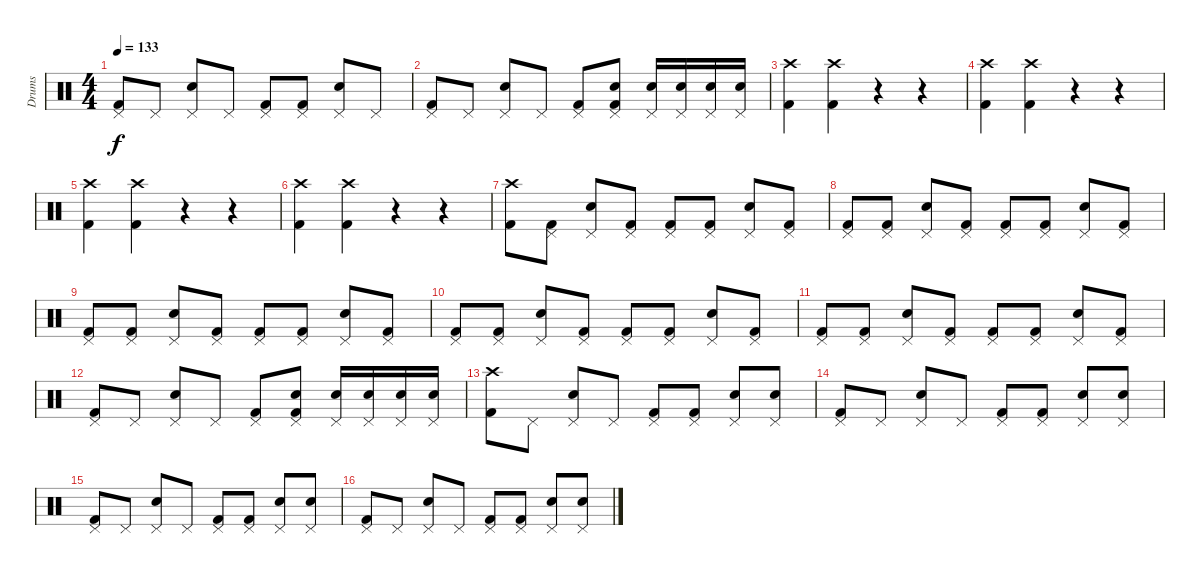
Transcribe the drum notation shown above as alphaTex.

\track ("Drums" "Drums") {instrument percussion}
\staff {score}
\articulation defaults
\ts (4 4)
\tempo 133
\clef neutral
\ks c
("Pedal Hi-Hat (hit)" "Kick (hit) 2").8{dy f} "Pedal Hi-Hat (hit)".8 ("Pedal Hi-Hat (hit)" "Snare (hit) 2").8 "Pedal Hi-Hat (hit)".8 ("Pedal Hi-Hat (hit)" "Kick (hit) 2").8 ("Pedal Hi-Hat (hit)" "Kick (hit) 2").8 ("Pedal Hi-Hat (hit)" "Snare (hit) 2").8 "Pedal Hi-Hat (hit)".8 |
("Pedal Hi-Hat (hit)" "Kick (hit) 2").8 "Pedal Hi-Hat (hit)".8 ("Pedal Hi-Hat (hit)" "Snare (hit) 2").8 "Pedal Hi-Hat (hit)".8 ("Pedal Hi-Hat (hit)" "Kick (hit) 2").8 ("Pedal Hi-Hat (hit)" "Snare (hit) 2" "Kick (hit) 2").8 ("Pedal Hi-Hat (hit)" "Snare (hit) 2").16 ("Pedal Hi-Hat (hit)" "Snare (hit) 2").16 ("Pedal Hi-Hat (hit)" "Snare (hit) 2").16 ("Pedal Hi-Hat (hit)" "Snare (hit) 2").16 |
("Crash high (hit)" "Kick (hit) 2").4 ("Crash high (hit)" "Kick (hit) 2").4 r.4 r.4 |
("Crash high (hit)" "Kick (hit) 2").4 ("Crash high (hit)" "Kick (hit) 2").4 r.4 r.4 |
("Crash high (hit)" "Kick (hit) 2").4 ("Crash high (hit)" "Kick (hit) 2").4 r.4 r.4 |
("Crash high (hit)" "Kick (hit) 2").4 ("Crash high (hit)" "Kick (hit) 2").4 r.4 r.4 |
("Crash high (hit)" "Kick (hit) 2").8 ("Pedal Hi-Hat (hit)" "Kick (hit) 2").8 ("Pedal Hi-Hat (hit)" "Snare (hit) 2").8 ("Pedal Hi-Hat (hit)" "Kick (hit) 2").8 ("Pedal Hi-Hat (hit)" "Kick (hit) 2").8 ("Pedal Hi-Hat (hit)" "Kick (hit) 2").8 ("Pedal Hi-Hat (hit)" "Snare (hit) 2").8 ("Pedal Hi-Hat (hit)" "Kick (hit) 2").8 |
("Pedal Hi-Hat (hit)" "Kick (hit) 2").8 ("Pedal Hi-Hat (hit)" "Kick (hit) 2").8 ("Pedal Hi-Hat (hit)" "Snare (hit) 2").8 ("Pedal Hi-Hat (hit)" "Kick (hit) 2").8 ("Pedal Hi-Hat (hit)" "Kick (hit) 2").8 ("Pedal Hi-Hat (hit)" "Kick (hit) 2").8 ("Pedal Hi-Hat (hit)" "Snare (hit) 2").8 ("Pedal Hi-Hat (hit)" "Kick (hit) 2").8 |
("Pedal Hi-Hat (hit)" "Kick (hit) 2").8 ("Pedal Hi-Hat (hit)" "Kick (hit) 2").8 ("Pedal Hi-Hat (hit)" "Snare (hit) 2").8 ("Pedal Hi-Hat (hit)" "Kick (hit) 2").8 ("Pedal Hi-Hat (hit)" "Kick (hit) 2").8 ("Pedal Hi-Hat (hit)" "Kick (hit) 2").8 ("Pedal Hi-Hat (hit)" "Snare (hit) 2").8 ("Pedal Hi-Hat (hit)" "Kick (hit) 2").8 |
("Pedal Hi-Hat (hit)" "Kick (hit) 2").8 ("Pedal Hi-Hat (hit)" "Kick (hit) 2").8 ("Pedal Hi-Hat (hit)" "Snare (hit) 2").8 ("Pedal Hi-Hat (hit)" "Kick (hit) 2").8 ("Pedal Hi-Hat (hit)" "Kick (hit) 2").8 ("Pedal Hi-Hat (hit)" "Kick (hit) 2").8 ("Pedal Hi-Hat (hit)" "Snare (hit) 2").8 ("Pedal Hi-Hat (hit)" "Kick (hit) 2").8 |
("Pedal Hi-Hat (hit)" "Kick (hit) 2").8 ("Pedal Hi-Hat (hit)" "Kick (hit) 2").8 ("Pedal Hi-Hat (hit)" "Snare (hit) 2").8 ("Pedal Hi-Hat (hit)" "Kick (hit) 2").8 ("Pedal Hi-Hat (hit)" "Kick (hit) 2").8 ("Pedal Hi-Hat (hit)" "Kick (hit) 2").8 ("Pedal Hi-Hat (hit)" "Snare (hit) 2").8 ("Pedal Hi-Hat (hit)" "Kick (hit) 2").8 |
("Pedal Hi-Hat (hit)" "Kick (hit) 2").8 "Pedal Hi-Hat (hit)".8 ("Pedal Hi-Hat (hit)" "Snare (hit) 2").8 "Pedal Hi-Hat (hit)".8 ("Pedal Hi-Hat (hit)" "Kick (hit) 2").8 ("Pedal Hi-Hat (hit)" "Snare (hit) 2" "Kick (hit) 2").8 ("Pedal Hi-Hat (hit)" "Snare (hit) 2").16 ("Pedal Hi-Hat (hit)" "Snare (hit) 2").16 ("Pedal Hi-Hat (hit)" "Snare (hit) 2").16 ("Pedal Hi-Hat (hit)" "Snare (hit) 2").16 |
("Crash high (hit)" "Kick (hit) 2").8 "Pedal Hi-Hat (hit)".8 ("Pedal Hi-Hat (hit)" "Snare (hit) 2").8 "Pedal Hi-Hat (hit)".8 ("Pedal Hi-Hat (hit)" "Kick (hit) 2").8 ("Pedal Hi-Hat (hit)" "Kick (hit) 2").8 ("Pedal Hi-Hat (hit)" "Snare (hit) 2").8 ("Pedal Hi-Hat (hit)" "Snare (hit) 2").8 |
("Pedal Hi-Hat (hit)" "Kick (hit) 2").8 "Pedal Hi-Hat (hit)".8 ("Pedal Hi-Hat (hit)" "Snare (hit) 2").8 "Pedal Hi-Hat (hit)".8 ("Pedal Hi-Hat (hit)" "Kick (hit) 2").8 ("Pedal Hi-Hat (hit)" "Kick (hit) 2").8 ("Pedal Hi-Hat (hit)" "Snare (hit) 2").8 ("Pedal Hi-Hat (hit)" "Snare (hit) 2").8 |
("Pedal Hi-Hat (hit)" "Kick (hit) 2").8 "Pedal Hi-Hat (hit)".8 ("Pedal Hi-Hat (hit)" "Snare (hit) 2").8 "Pedal Hi-Hat (hit)".8 ("Pedal Hi-Hat (hit)" "Kick (hit) 2").8 ("Pedal Hi-Hat (hit)" "Kick (hit) 2").8 ("Pedal Hi-Hat (hit)" "Snare (hit) 2").8 ("Pedal Hi-Hat (hit)" "Snare (hit) 2").8 |
("Pedal Hi-Hat (hit)" "Kick (hit) 2").8 "Pedal Hi-Hat (hit)".8 ("Pedal Hi-Hat (hit)" "Snare (hit) 2").8 "Pedal Hi-Hat (hit)".8 ("Pedal Hi-Hat (hit)" "Kick (hit) 2").8 ("Pedal Hi-Hat (hit)" "Kick (hit) 2").8 ("Pedal Hi-Hat (hit)" "Snare (hit) 2").8 ("Pedal Hi-Hat (hit)" "Snare (hit) 2").8
